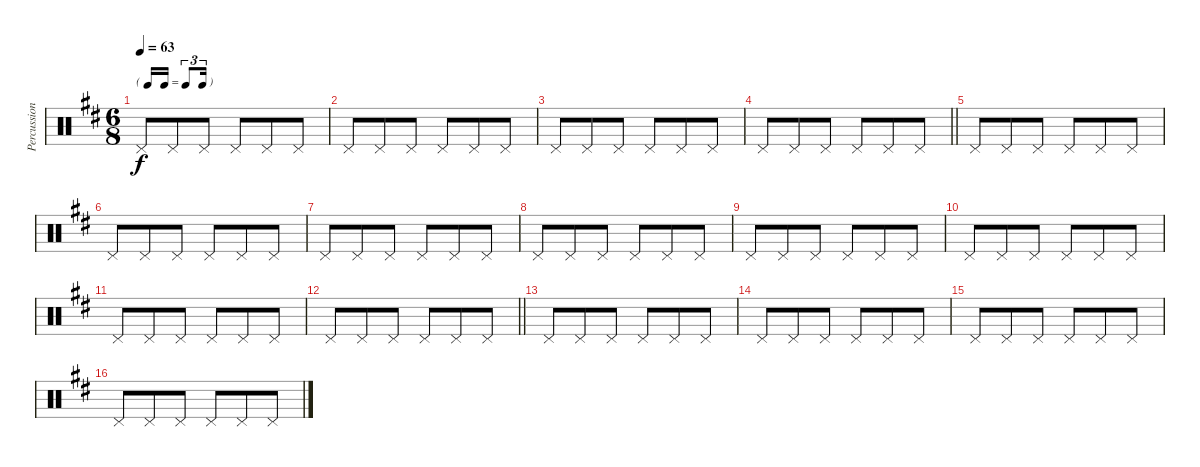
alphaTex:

\track ("Percussion" "Percussion") {instrument percussion}
\staff {score}
\articulation defaults
\ts (6 8)
\tf triplet16th
\tempo 63
\clef neutral
\ks bminor "Pedal Hi-Hat (hit)".8{dy f} "Pedal Hi-Hat (hit)".8 "Pedal Hi-Hat (hit)".8 "Pedal Hi-Hat (hit)".8 "Pedal Hi-Hat (hit)".8 "Pedal Hi-Hat (hit)".8
|
"Pedal Hi-Hat (hit)".8 "Pedal Hi-Hat (hit)".8 "Pedal Hi-Hat (hit)".8 "Pedal Hi-Hat (hit)".8 "Pedal Hi-Hat (hit)".8 "Pedal Hi-Hat (hit)".8 |
"Pedal Hi-Hat (hit)".8 "Pedal Hi-Hat (hit)".8 "Pedal Hi-Hat (hit)".8 "Pedal Hi-Hat (hit)".8 "Pedal Hi-Hat (hit)".8 "Pedal Hi-Hat (hit)".8 |
\barLineRight lightlight "Pedal Hi-Hat (hit)".8 "Pedal Hi-Hat (hit)".8 "Pedal Hi-Hat (hit)".8 "Pedal Hi-Hat (hit)".8 "Pedal Hi-Hat (hit)".8 "Pedal Hi-Hat (hit)".8
|
"Pedal Hi-Hat (hit)".8 "Pedal Hi-Hat (hit)".8 "Pedal Hi-Hat (hit)".8 "Pedal Hi-Hat (hit)".8 "Pedal Hi-Hat (hit)".8 "Pedal Hi-Hat (hit)".8 |
"Pedal Hi-Hat (hit)".8 "Pedal Hi-Hat (hit)".8 "Pedal Hi-Hat (hit)".8 "Pedal Hi-Hat (hit)".8 "Pedal Hi-Hat (hit)".8 "Pedal Hi-Hat (hit)".8 |
"Pedal Hi-Hat (hit)".8 "Pedal Hi-Hat (hit)".8 "Pedal Hi-Hat (hit)".8 "Pedal Hi-Hat (hit)".8 "Pedal Hi-Hat (hit)".8 "Pedal Hi-Hat (hit)".8 |
"Pedal Hi-Hat (hit)".8 "Pedal Hi-Hat (hit)".8 "Pedal Hi-Hat (hit)".8 "Pedal Hi-Hat (hit)".8 "Pedal Hi-Hat (hit)".8 "Pedal Hi-Hat (hit)".8 |
"Pedal Hi-Hat (hit)".8 "Pedal Hi-Hat (hit)".8 "Pedal Hi-Hat (hit)".8 "Pedal Hi-Hat (hit)".8 "Pedal Hi-Hat (hit)".8 "Pedal Hi-Hat (hit)".8 |
"Pedal Hi-Hat (hit)".8 "Pedal Hi-Hat (hit)".8 "Pedal Hi-Hat (hit)".8 "Pedal Hi-Hat (hit)".8 "Pedal Hi-Hat (hit)".8 "Pedal Hi-Hat (hit)".8 |
"Pedal Hi-Hat (hit)".8 "Pedal Hi-Hat (hit)".8 "Pedal Hi-Hat (hit)".8 "Pedal Hi-Hat (hit)".8 "Pedal Hi-Hat (hit)".8 "Pedal Hi-Hat (hit)".8 |
\barLineRight lightlight "Pedal Hi-Hat (hit)".8 "Pedal Hi-Hat (hit)".8 "Pedal Hi-Hat (hit)".8 "Pedal Hi-Hat (hit)".8 "Pedal Hi-Hat (hit)".8 "Pedal Hi-Hat (hit)".8
|
"Pedal Hi-Hat (hit)".8 "Pedal Hi-Hat (hit)".8 "Pedal Hi-Hat (hit)".8 "Pedal Hi-Hat (hit)".8 "Pedal Hi-Hat (hit)".8 "Pedal Hi-Hat (hit)".8 |
"Pedal Hi-Hat (hit)".8 "Pedal Hi-Hat (hit)".8 "Pedal Hi-Hat (hit)".8 "Pedal Hi-Hat (hit)".8 "Pedal Hi-Hat (hit)".8 "Pedal Hi-Hat (hit)".8 |
"Pedal Hi-Hat (hit)".8 "Pedal Hi-Hat (hit)".8 "Pedal Hi-Hat (hit)".8 "Pedal Hi-Hat (hit)".8 "Pedal Hi-Hat (hit)".8 "Pedal Hi-Hat (hit)".8 |
"Pedal Hi-Hat (hit)".8 "Pedal Hi-Hat (hit)".8 "Pedal Hi-Hat (hit)".8 "Pedal Hi-Hat (hit)".8 "Pedal Hi-Hat (hit)".8 "Pedal Hi-Hat (hit)".8
